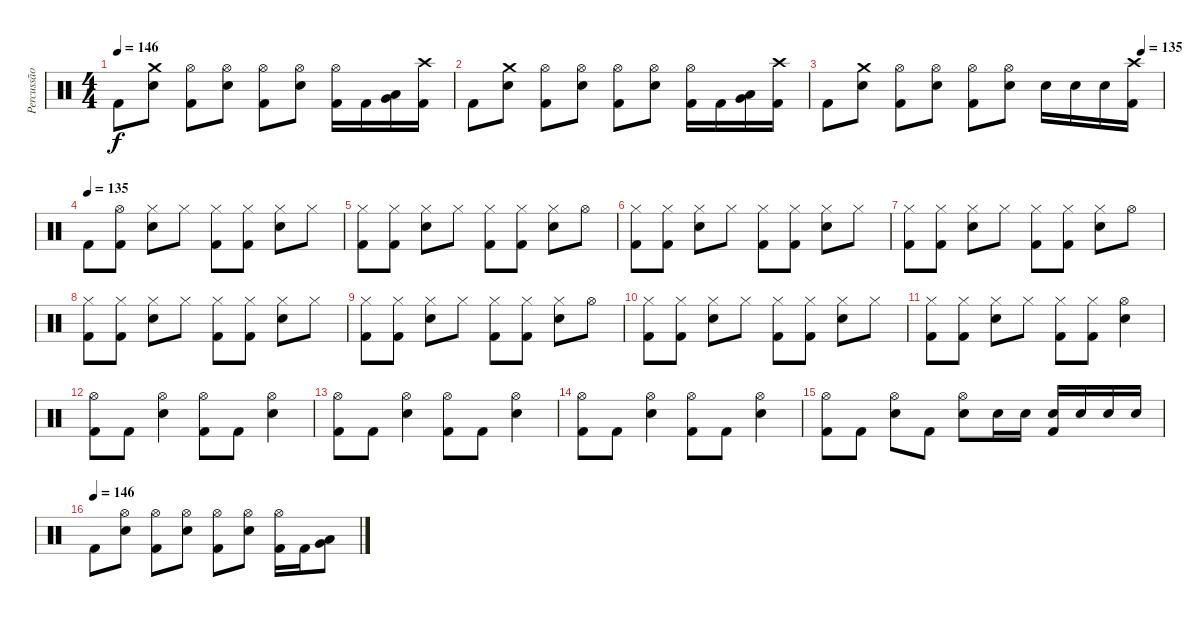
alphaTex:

\track ("Percussão" "Percussão") {instrument percussion}
\staff {score}
\articulation defaults
\ts (4 4)
\tempo 146
\clef neutral
\ks c "Kick (hit) 2".8{dy f}
("Crash medium (hit)" "Snare (hit) 2").8 ("Hi-Hat (open)" "Kick (hit) 2").8 ("Hi-Hat (open)" "Snare (hit) 2").8 ("Hi-Hat (open)" "Kick (hit) 2").8 ("Hi-Hat (open)" "Snare (hit) 2").8 ("Hi-Hat (open)" "Kick (hit) 2").16 "Kick (hit) 2".16 ("Very Low Tom (hit)" "Low Tom (hit)").16 ("Crash high (hit)" "Kick (hit) 2").16 |
"Kick (hit) 2".8 ("Crash medium (hit)" "Snare (hit) 2").8 ("Hi-Hat (open)" "Kick (hit) 2").8 ("Hi-Hat (open)" "Snare (hit) 2").8 ("Hi-Hat (open)" "Kick (hit) 2").8 ("Hi-Hat (open)" "Snare (hit) 2").8 ("Hi-Hat (open)" "Kick (hit) 2").16 "Kick (hit) 2".16 ("Very Low Tom (hit)" "Low Tom (hit)").16 ("Crash high (hit)" "Kick (hit) 2").16 |
\tempo (135 0.9375)
"Kick (hit) 2".8 ("Crash medium (hit)" "Snare (hit) 2").8 ("Hi-Hat (open)" "Kick (hit) 2").8 ("Hi-Hat (open)" "Snare (hit) 2").8 ("Hi-Hat (open)" "Kick (hit) 2").8 ("Hi-Hat (open)" "Snare (hit) 2").8 "Snare (hit) 2".16 "Snare (hit) 2".16 "Snare (hit) 2".16 ("Crash high (hit)" "Kick (hit) 2").16 |
\section ("" "")
\tempo (135)
"Kick (hit) 2".8 ("Hi-Hat (open)" "Kick (hit) 2").8 ("Hi-Hat (closed)" "Snare (hit) 2").8 "Hi-Hat (closed)".8 ("Hi-Hat (closed)" "Kick (hit) 2").8 ("Hi-Hat (closed)" "Kick (hit) 2").8 ("Hi-Hat (closed)" "Snare (hit) 2").8 "Hi-Hat (closed)".8 |
("Hi-Hat (closed)" "Kick (hit) 2").8 ("Hi-Hat (closed)" "Kick (hit) 2").8 ("Hi-Hat (closed)" "Snare (hit) 2").8 "Hi-Hat (closed)".8 ("Hi-Hat (closed)" "Kick (hit) 2").8 ("Hi-Hat (closed)" "Kick (hit) 2").8 ("Hi-Hat (closed)" "Snare (hit) 2").8 "Hi-Hat (open)".8 |
("Hi-Hat (closed)" "Kick (hit) 2").8 ("Hi-Hat (closed)" "Kick (hit) 2").8 ("Hi-Hat (closed)" "Snare (hit) 2").8 "Hi-Hat (closed)".8 ("Hi-Hat (closed)" "Kick (hit) 2").8 ("Hi-Hat (closed)" "Kick (hit) 2").8 ("Hi-Hat (closed)" "Snare (hit) 2").8 "Hi-Hat (closed)".8 |
("Hi-Hat (closed)" "Kick (hit) 2").8 ("Hi-Hat (closed)" "Kick (hit) 2").8 ("Hi-Hat (closed)" "Snare (hit) 2").8 "Hi-Hat (closed)".8 ("Hi-Hat (closed)" "Kick (hit) 2").8 ("Hi-Hat (closed)" "Kick (hit) 2").8 ("Hi-Hat (closed)" "Snare (hit) 2").8 "Hi-Hat (open)".8 |
("Hi-Hat (closed)" "Kick (hit) 2").8 ("Hi-Hat (closed)" "Kick (hit) 2").8 ("Hi-Hat (closed)" "Snare (hit) 2").8 "Hi-Hat (closed)".8 ("Hi-Hat (closed)" "Kick (hit) 2").8 ("Hi-Hat (closed)" "Kick (hit) 2").8 ("Hi-Hat (closed)" "Snare (hit) 2").8 "Hi-Hat (closed)".8 |
("Hi-Hat (closed)" "Kick (hit) 2").8 ("Hi-Hat (closed)" "Kick (hit) 2").8 ("Hi-Hat (closed)" "Snare (hit) 2").8 "Hi-Hat (closed)".8 ("Hi-Hat (closed)" "Kick (hit) 2").8 ("Hi-Hat (closed)" "Kick (hit) 2").8 ("Hi-Hat (closed)" "Snare (hit) 2").8 "Hi-Hat (open)".8 |
("Hi-Hat (closed)" "Kick (hit) 2").8 ("Hi-Hat (closed)" "Kick (hit) 2").8 ("Hi-Hat (closed)" "Snare (hit) 2").8 "Hi-Hat (closed)".8 ("Hi-Hat (closed)" "Kick (hit) 2").8 ("Hi-Hat (closed)" "Kick (hit) 2").8 ("Hi-Hat (closed)" "Snare (hit) 2").8 "Hi-Hat (closed)".8 |
("Hi-Hat (closed)" "Kick (hit) 2").8 ("Hi-Hat (closed)" "Kick (hit) 2").8 ("Hi-Hat (closed)" "Snare (hit) 2").8 "Hi-Hat (closed)".8 ("Hi-Hat (closed)" "Kick (hit) 2").8 ("Hi-Hat (closed)" "Kick (hit) 2").8 ("Hi-Hat (open)" "Snare (hit) 2").4 |
("Hi-Hat (open)" "Kick (hit) 2").8 "Kick (hit) 2".8 ("Hi-Hat (open)" "Snare (hit) 2").4 ("Hi-Hat (open)" "Kick (hit) 2").8 "Kick (hit) 2".8 ("Hi-Hat (open)" "Snare (hit) 2").4 |
("Hi-Hat (open)" "Kick (hit) 2").8 "Kick (hit) 2".8 ("Hi-Hat (open)" "Snare (hit) 2").4 ("Hi-Hat (open)" "Kick (hit) 2").8 "Kick (hit) 2".8 ("Hi-Hat (open)" "Snare (hit) 2").4 |
("Hi-Hat (open)" "Kick (hit) 2").8 "Kick (hit) 2".8 ("Hi-Hat (open)" "Snare (hit) 2").4 ("Hi-Hat (open)" "Kick (hit) 2").8 "Kick (hit) 2".8 ("Hi-Hat (open)" "Snare (hit) 2").4 |
("Hi-Hat (open)" "Kick (hit) 2").8 "Kick (hit) 2".8 ("Hi-Hat (open)" "Snare (hit) 2").8 "Kick (hit) 2".8 ("Hi-Hat (open)" "Snare (hit) 2").8 "Snare (hit) 2".16 "Snare (hit) 2".16 ("Snare (hit) 2" "Kick (hit) 2").16 "Snare (hit) 2".16 "Snare (hit) 2".16 "Snare (hit) 2".16 |
\section ("" "")
\tempo (146)
"Kick (hit) 2".8 ("Hi-Hat (open)" "Snare (hit) 2").8 ("Hi-Hat (open)" "Kick (hit) 2").8 ("Hi-Hat (open)" "Snare (hit) 2").8 ("Hi-Hat (open)" "Kick (hit) 2").8 ("Hi-Hat (open)" "Snare (hit) 2").8 ("Hi-Hat (open)" "Kick (hit) 2").16 "Kick (hit) 2".16 ("Very Low Tom (hit)" "Low Tom (hit)").8
